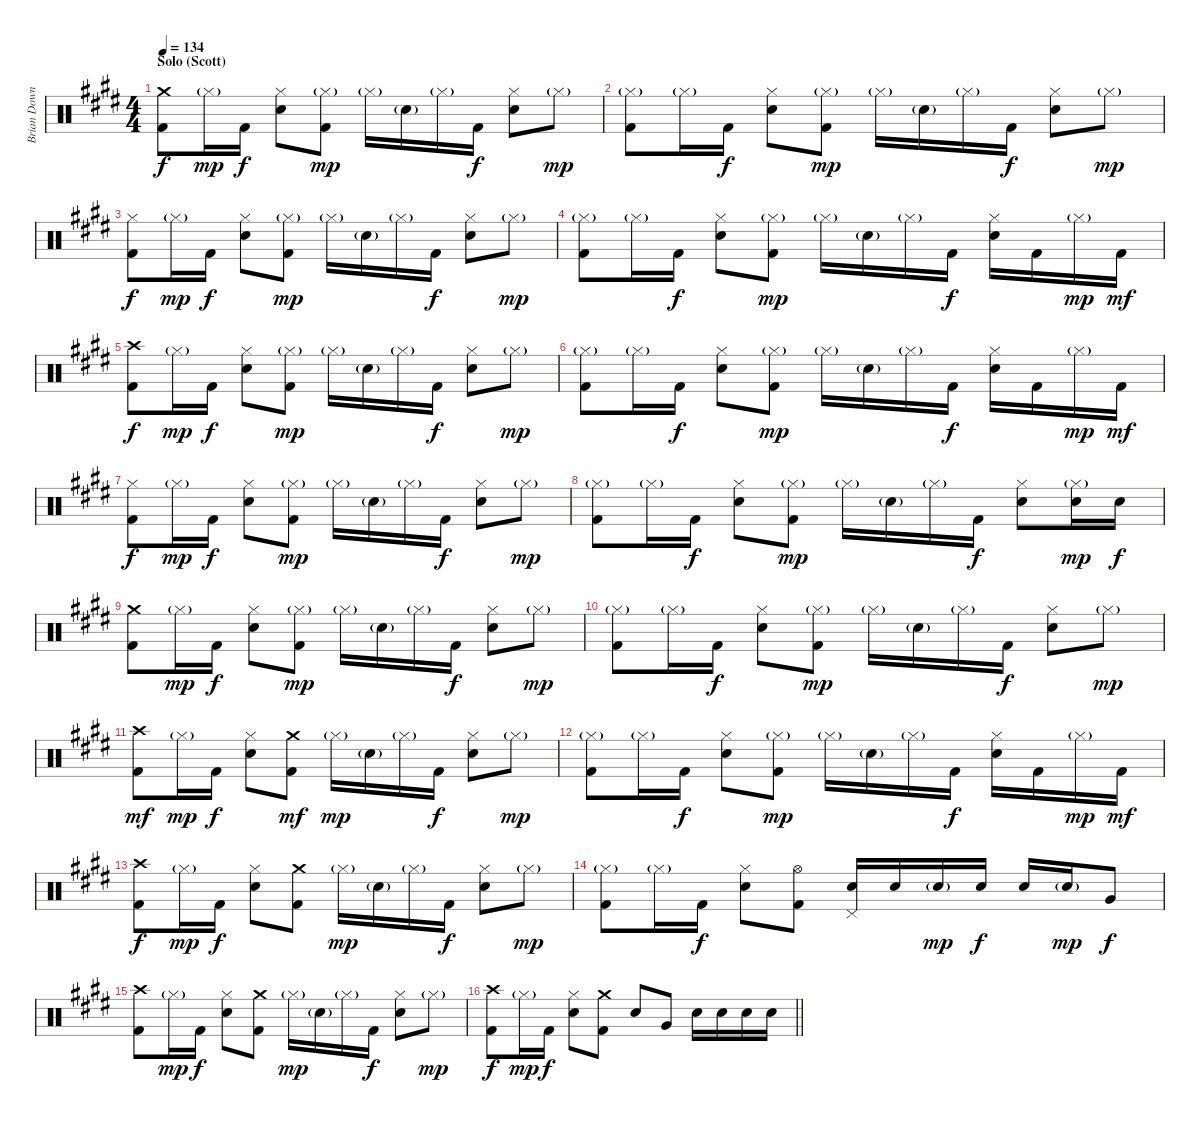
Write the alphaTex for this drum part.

\track ("Brian Downey" "Brian Down") {instrument percussion}
\staff {score}
\articulation defaults
\ts (4 4)
\section ("" "Solo (Scott)")
\tempo 134
\clef neutral
\ks e
("Crash medium (hit)" "Kick (hit) 2").8{dy f} "Hi-Hat (closed)"{g}.16{dy mp} "Kick (hit) 2".16{dy f} ("Hi-Hat (closed)" "Electric Snare (hit)").8 ("Hi-Hat (closed)"{g} "Kick (hit) 2").8{dy mp} "Hi-Hat (closed)"{g}.16 "Electric Snare (hit)"{g}.16 "Hi-Hat (closed)"{g}.16 "Kick (hit) 2".16{dy f} ("Hi-Hat (closed)" "Electric Snare (hit)").8 "Hi-Hat (closed)"{g}.8{dy mp} |
("Hi-Hat (closed)"{g} "Kick (hit) 2").8 "Hi-Hat (closed)"{g}.16 "Kick (hit) 2".16{dy f} ("Hi-Hat (closed)" "Electric Snare (hit)").8 ("Hi-Hat (closed)"{g} "Kick (hit) 2").8{dy mp} "Hi-Hat (closed)"{g}.16 "Electric Snare (hit)"{g}.16 "Hi-Hat (closed)"{g}.16 "Kick (hit) 2".16{dy f} ("Hi-Hat (closed)" "Electric Snare (hit)").8 "Hi-Hat (closed)"{g}.8{dy mp} |
("Hi-Hat (closed)" "Kick (hit) 2").8{dy f} "Hi-Hat (closed)"{g}.16{dy mp} "Kick (hit) 2".16{dy f} ("Hi-Hat (closed)" "Electric Snare (hit)").8 ("Hi-Hat (closed)"{g} "Kick (hit) 2").8{dy mp} "Hi-Hat (closed)"{g}.16 "Electric Snare (hit)"{g}.16 "Hi-Hat (closed)"{g}.16 "Kick (hit) 2".16{dy f} ("Hi-Hat (closed)" "Electric Snare (hit)").8 "Hi-Hat (closed)"{g}.8{dy mp} |
("Hi-Hat (closed)"{g} "Kick (hit) 2").8 "Hi-Hat (closed)"{g}.16 "Kick (hit) 2".16{dy f} ("Hi-Hat (closed)" "Electric Snare (hit)").8 ("Hi-Hat (closed)"{g} "Kick (hit) 2").8{dy mp} "Hi-Hat (closed)"{g}.16 "Electric Snare (hit)"{g}.16 "Hi-Hat (closed)"{g}.16 "Kick (hit) 2".16{dy f} ("Hi-Hat (closed)" "Electric Snare (hit)").16 "Kick (hit) 2".16 "Hi-Hat (closed)"{g}.16{dy mp} "Kick (hit) 2".16{dy mf} |
("Crash high (hit)" "Kick (hit) 2").8{dy f} "Hi-Hat (closed)"{g}.16{dy mp} "Kick (hit) 2".16{dy f} ("Hi-Hat (closed)" "Electric Snare (hit)").8 ("Hi-Hat (closed)"{g} "Kick (hit) 2").8{dy mp} "Hi-Hat (closed)"{g}.16 "Electric Snare (hit)"{g}.16 "Hi-Hat (closed)"{g}.16 "Kick (hit) 2".16{dy f} ("Hi-Hat (closed)" "Electric Snare (hit)").8 "Hi-Hat (closed)"{g}.8{dy mp} |
("Hi-Hat (closed)"{g} "Kick (hit) 2").8 "Hi-Hat (closed)"{g}.16 "Kick (hit) 2".16{dy f} ("Hi-Hat (closed)" "Electric Snare (hit)").8 ("Hi-Hat (closed)"{g} "Kick (hit) 2").8{dy mp} "Hi-Hat (closed)"{g}.16 "Electric Snare (hit)"{g}.16 "Hi-Hat (closed)"{g}.16 "Kick (hit) 2".16{dy f} ("Hi-Hat (closed)" "Electric Snare (hit)").16 "Kick (hit) 2".16 "Hi-Hat (closed)"{g}.16{dy mp} "Kick (hit) 2".16{dy mf} |
("Hi-Hat (closed)" "Kick (hit) 2").8{dy f} "Hi-Hat (closed)"{g}.16{dy mp} "Kick (hit) 2".16{dy f} ("Hi-Hat (closed)" "Electric Snare (hit)").8 ("Hi-Hat (closed)"{g} "Kick (hit) 2").8{dy mp} "Hi-Hat (closed)"{g}.16 "Electric Snare (hit)"{g}.16 "Hi-Hat (closed)"{g}.16 "Kick (hit) 2".16{dy f} ("Hi-Hat (closed)" "Electric Snare (hit)").8 "Hi-Hat (closed)"{g}.8{dy mp} |
("Hi-Hat (closed)"{g} "Kick (hit) 2").8 "Hi-Hat (closed)"{g}.16 "Kick (hit) 2".16{dy f} ("Hi-Hat (closed)" "Electric Snare (hit)").8 ("Hi-Hat (closed)"{g} "Kick (hit) 2").8{dy mp} "Hi-Hat (closed)"{g}.16 "Electric Snare (hit)"{g}.16 "Hi-Hat (closed)"{g}.16 "Kick (hit) 2".16{dy f} ("Hi-Hat (closed)" "Electric Snare (hit)").8 ("Hi-Hat (closed)"{g} "Electric Snare (hit)").16{dy mp} "Electric Snare (hit)".16{dy f} |
("Crash medium (hit)" "Kick (hit) 2").8 "Hi-Hat (closed)"{g}.16{dy mp} "Kick (hit) 2".16{dy f} ("Hi-Hat (closed)" "Electric Snare (hit)").8 ("Hi-Hat (closed)"{g} "Kick (hit) 2").8{dy mp} "Hi-Hat (closed)"{g}.16 "Electric Snare (hit)"{g}.16 "Hi-Hat (closed)"{g}.16 "Kick (hit) 2".16{dy f} ("Hi-Hat (closed)" "Electric Snare (hit)").8 "Hi-Hat (closed)"{g}.8{dy mp} |
("Hi-Hat (closed)"{g} "Kick (hit) 2").8 "Hi-Hat (closed)"{g}.16 "Kick (hit) 2".16{dy f} ("Hi-Hat (closed)" "Electric Snare (hit)").8 ("Hi-Hat (closed)"{g} "Kick (hit) 2").8{dy mp} "Hi-Hat (closed)"{g}.16 "Electric Snare (hit)"{g}.16 "Hi-Hat (closed)"{g}.16 "Kick (hit) 2".16{dy f} ("Hi-Hat (closed)" "Electric Snare (hit)").8 "Hi-Hat (closed)"{g}.8{dy mp} |
("Crash high (hit)" "Kick (hit) 2").8{dy mf} "Hi-Hat (closed)"{g}.16{dy mp} "Kick (hit) 2".16{dy f} ("Hi-Hat (closed)" "Electric Snare (hit)").8 ("Crash medium (hit)" "Kick (hit) 2").8{dy mf} "Hi-Hat (closed)"{g}.16{dy mp} "Electric Snare (hit)"{g}.16 "Hi-Hat (closed)"{g}.16 "Kick (hit) 2".16{dy f} ("Hi-Hat (closed)" "Electric Snare (hit)").8 "Hi-Hat (closed)"{g}.8{dy mp} |
("Hi-Hat (closed)"{g} "Kick (hit) 2").8 "Hi-Hat (closed)"{g}.16 "Kick (hit) 2".16{dy f} ("Hi-Hat (closed)" "Electric Snare (hit)").8 ("Hi-Hat (closed)"{g} "Kick (hit) 2").8{dy mp} "Hi-Hat (closed)"{g}.16 "Electric Snare (hit)"{g}.16 "Hi-Hat (closed)"{g}.16 "Kick (hit) 2".16{dy f} ("Hi-Hat (closed)" "Electric Snare (hit)").16 "Kick (hit) 2".16 "Hi-Hat (closed)"{g}.16{dy mp} "Kick (hit) 2".16{dy mf} |
("Crash high (hit)" "Kick (hit) 2").8{dy f} "Hi-Hat (closed)"{g}.16{dy mp} "Kick (hit) 2".16{dy f} ("Hi-Hat (closed)" "Electric Snare (hit)").8 ("Crash medium (hit)" "Kick (hit) 2").8 "Hi-Hat (closed)"{g}.16{dy mp} "Electric Snare (hit)"{g}.16 "Hi-Hat (closed)"{g}.16 "Kick (hit) 2".16{dy f} ("Hi-Hat (closed)" "Electric Snare (hit)").8 "Hi-Hat (closed)"{g}.8{dy mp} |
("Hi-Hat (closed)"{g} "Kick (hit) 2").8 "Hi-Hat (closed)"{g}.16 "Kick (hit) 2".16{dy f} ("Hi-Hat (closed)" "Electric Snare (hit)").8 ("Hi-Hat (open)" "Kick (hit) 2").8 ("Pedal Hi-Hat (hit)" "Electric Snare (hit)").16 "Electric Snare (hit)".16 "Electric Snare (hit)"{g}.16{dy mp} "Electric Snare (hit)".16{dy f} "Electric Snare (hit)".16 "Electric Snare (hit)"{g}.16{dy mp} "Very Low Tom (hit)".8{dy f} |
("Crash high (hit)" "Kick (hit) 2").8 "Hi-Hat (closed)"{g}.16{dy mp} "Kick (hit) 2".16{dy f} ("Hi-Hat (closed)" "Electric Snare (hit)").8 ("Crash medium (hit)" "Kick (hit) 2").8 "Hi-Hat (closed)"{g}.16{dy mp} "Electric Snare (hit)"{g}.16 "Hi-Hat (closed)"{g}.16 "Kick (hit) 2".16{dy f} ("Hi-Hat (closed)" "Electric Snare (hit)").8 "Hi-Hat (closed)"{g}.8{dy mp} |
\barLineRight lightlight
("Crash high (hit)" "Kick (hit) 2").8{dy f} "Hi-Hat (closed)"{g}.16{dy mp} "Kick (hit) 2".16{dy f} ("Hi-Hat (closed)" "Electric Snare (hit)").8 ("Crash medium (hit)" "Kick (hit) 2").8 "Electric Snare (hit)".8 "Very Low Tom (hit)".8 "Electric Snare (hit)".16 "Electric Snare (hit)".16 "Electric Snare (hit)".16 "Electric Snare (hit)".16
